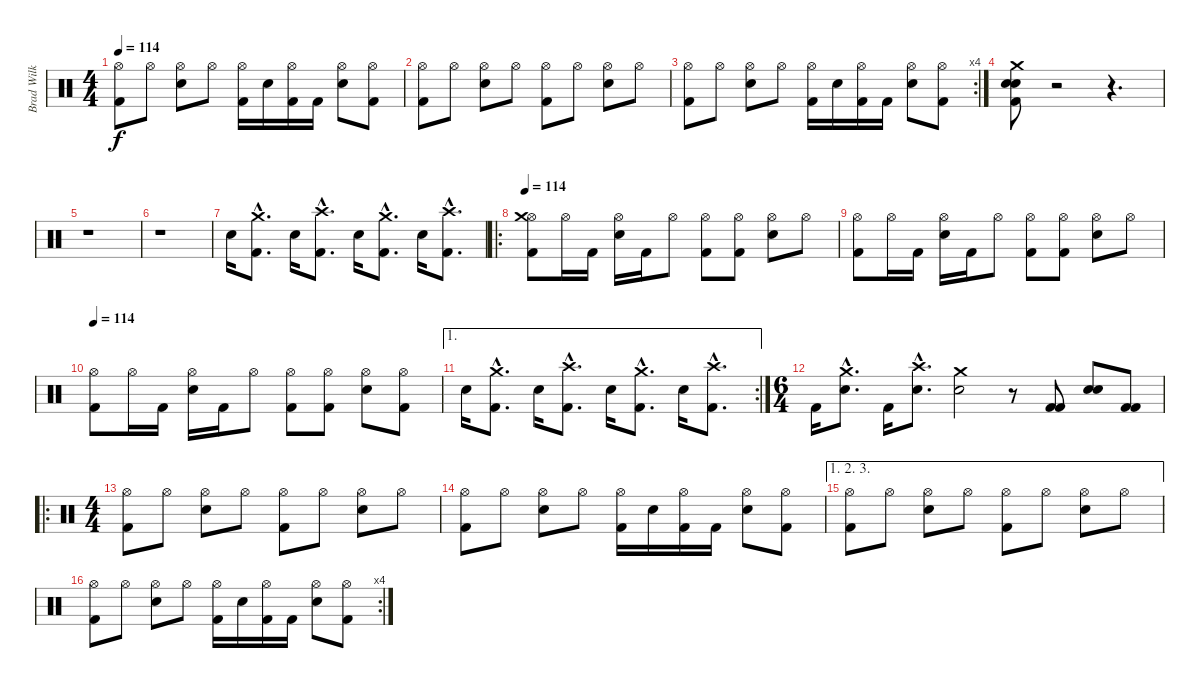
\track ("Brad Wilk" "Brad Wilk") {instrument percussion}
\staff {score}
\articulation defaults
\ts (4 4)
\tempo 114
\clef neutral
\ks c
("Hi-Hat (open)" "Kick (hit) 2").8{dy f} "Hi-Hat (open)".8 ("Hi-Hat (open)" "Snare (hit) 2").8 "Hi-Hat (open)".8 ("Hi-Hat (open)" "Kick (hit) 2").16 "Snare (hit) 2".16 ("Hi-Hat (open)" "Kick (hit) 2").16 "Kick (hit) 2".16 ("Hi-Hat (open)" "Snare (hit) 2").8 ("Hi-Hat (open)" "Kick (hit) 2").8 |
("Hi-Hat (open)" "Kick (hit) 2").8 "Hi-Hat (open)".8 ("Hi-Hat (open)" "Snare (hit) 2").8 "Hi-Hat (open)".8 ("Hi-Hat (open)" "Kick (hit) 2").8 "Hi-Hat (open)".8 ("Hi-Hat (open)" "Snare (hit) 2").8 "Hi-Hat (open)".8 |
\rc 4
("Hi-Hat (open)" "Kick (hit) 2").8 "Hi-Hat (open)".8 ("Hi-Hat (open)" "Snare (hit) 2").8 "Hi-Hat (open)".8 ("Hi-Hat (open)" "Kick (hit) 2").16 "Snare (hit) 2".16 ("Hi-Hat (open)" "Kick (hit) 2").16 "Kick (hit) 2".16 ("Hi-Hat (open)" "Snare (hit) 2").8 ("Hi-Hat (open)" "Kick (hit) 2").8 |
("Crash medium (hit)" "Kick (hit) 2" "Snare (hit) 2" "Snare (hit) 2").8 r.2 r.4{d} |
r.1 |
r.1 |
"Snare (hit) 2".16 ("Kick (hit) 2"{hac} "Crash medium (hit)"{hac}).8{d} "Snare (hit) 2".16 ("Kick (hit) 2"{hac} "Crash high (hit)"{hac}).8{d} "Snare (hit) 2".16 ("Kick (hit) 2"{hac} "Crash medium (hit)"{hac}).8{d} "Snare (hit) 2".16 ("Kick (hit) 2"{hac} "Crash high (hit)"{hac}).8{d} |
\ro
\tempo 114
("Hi-Hat (open)" "Kick (hit) 2" "Crash medium (hit)").8 "Hi-Hat (open)".16 "Kick (hit) 2".16 ("Hi-Hat (open)" "Snare (hit) 2").16 "Kick (hit) 2".16 "Hi-Hat (open)".8 ("Hi-Hat (open)" "Kick (hit) 2").8 ("Hi-Hat (open)" "Kick (hit) 2").8 ("Hi-Hat (open)" "Snare (hit) 2").8 "Hi-Hat (open)".8 |
("Hi-Hat (open)" "Kick (hit) 2").8 "Hi-Hat (open)".16 "Kick (hit) 2".16 ("Hi-Hat (open)" "Snare (hit) 2").16 "Kick (hit) 2".16 "Hi-Hat (open)".8 ("Hi-Hat (open)" "Kick (hit) 2").8 ("Hi-Hat (open)" "Kick (hit) 2").8 ("Hi-Hat (open)" "Snare (hit) 2").8 "Hi-Hat (open)".8 |
\tempo 114
("Hi-Hat (open)" "Kick (hit) 2").8 "Hi-Hat (open)".16 "Kick (hit) 2".16 ("Hi-Hat (open)" "Snare (hit) 2").16 "Kick (hit) 2".16 "Hi-Hat (open)".8 ("Hi-Hat (open)" "Kick (hit) 2").8 ("Hi-Hat (open)" "Kick (hit) 2").8 ("Hi-Hat (open)" "Snare (hit) 2").8 ("Hi-Hat (open)" "Kick (hit) 2").8 |
\ae 1
\rc 2 "Snare (hit) 2".16
("Kick (hit) 2"{hac} "Crash medium (hit)"{hac}).8{d} "Snare (hit) 2".16 ("Kick (hit) 2"{hac} "Crash high (hit)"{hac}).8{d} "Snare (hit) 2".16 ("Kick (hit) 2"{hac} "Crash medium (hit)"{hac}).8{d} "Snare (hit) 2".16 ("Kick (hit) 2"{hac} "Crash high (hit)"{hac}).8{d} |
\ts (6 4)
"Kick (hit) 2".16 ("Snare (hit) 2"{hac} "Crash medium (hit)"{hac}).8{d} "Kick (hit) 2".16 ("Snare (hit) 2"{hac} "Crash high (hit)"{hac}).8{d} ("Snare (hit) 2" "Crash medium (hit)").2 r.8 ("Kick (hit) 2" "Kick (hit) 2").8 ("Snare (hit) 2" "Snare (hit) 2").8 ("Kick (hit) 2" "Kick (hit) 2").8 |
\ro
\ts (4 4)
("Hi-Hat (open)" "Kick (hit) 2").8 "Hi-Hat (open)".8 ("Hi-Hat (open)" "Snare (hit) 2").8 "Hi-Hat (open)".8 ("Hi-Hat (open)" "Kick (hit) 2").8 "Hi-Hat (open)".8 ("Hi-Hat (open)" "Snare (hit) 2").8 "Hi-Hat (open)".8 |
("Hi-Hat (open)" "Kick (hit) 2").8 "Hi-Hat (open)".8 ("Hi-Hat (open)" "Snare (hit) 2").8 "Hi-Hat (open)".8 ("Hi-Hat (open)" "Kick (hit) 2").16 "Snare (hit) 2".16 ("Hi-Hat (open)" "Kick (hit) 2").16 "Kick (hit) 2".16 ("Hi-Hat (open)" "Snare (hit) 2").8 ("Hi-Hat (open)" "Kick (hit) 2").8 |
\ae (1 2 3)
("Hi-Hat (open)" "Kick (hit) 2").8 "Hi-Hat (open)".8 ("Hi-Hat (open)" "Snare (hit) 2").8 "Hi-Hat (open)".8 ("Hi-Hat (open)" "Kick (hit) 2").8 "Hi-Hat (open)".8 ("Hi-Hat (open)" "Snare (hit) 2").8 "Hi-Hat (open)".8 |
\rc 4
("Hi-Hat (open)" "Kick (hit) 2").8 "Hi-Hat (open)".8 ("Hi-Hat (open)" "Snare (hit) 2").8 "Hi-Hat (open)".8 ("Hi-Hat (open)" "Kick (hit) 2").16 "Snare (hit) 2".16 ("Hi-Hat (open)" "Kick (hit) 2").16 "Kick (hit) 2".16 ("Hi-Hat (open)" "Snare (hit) 2").8 ("Hi-Hat (open)" "Kick (hit) 2").8
